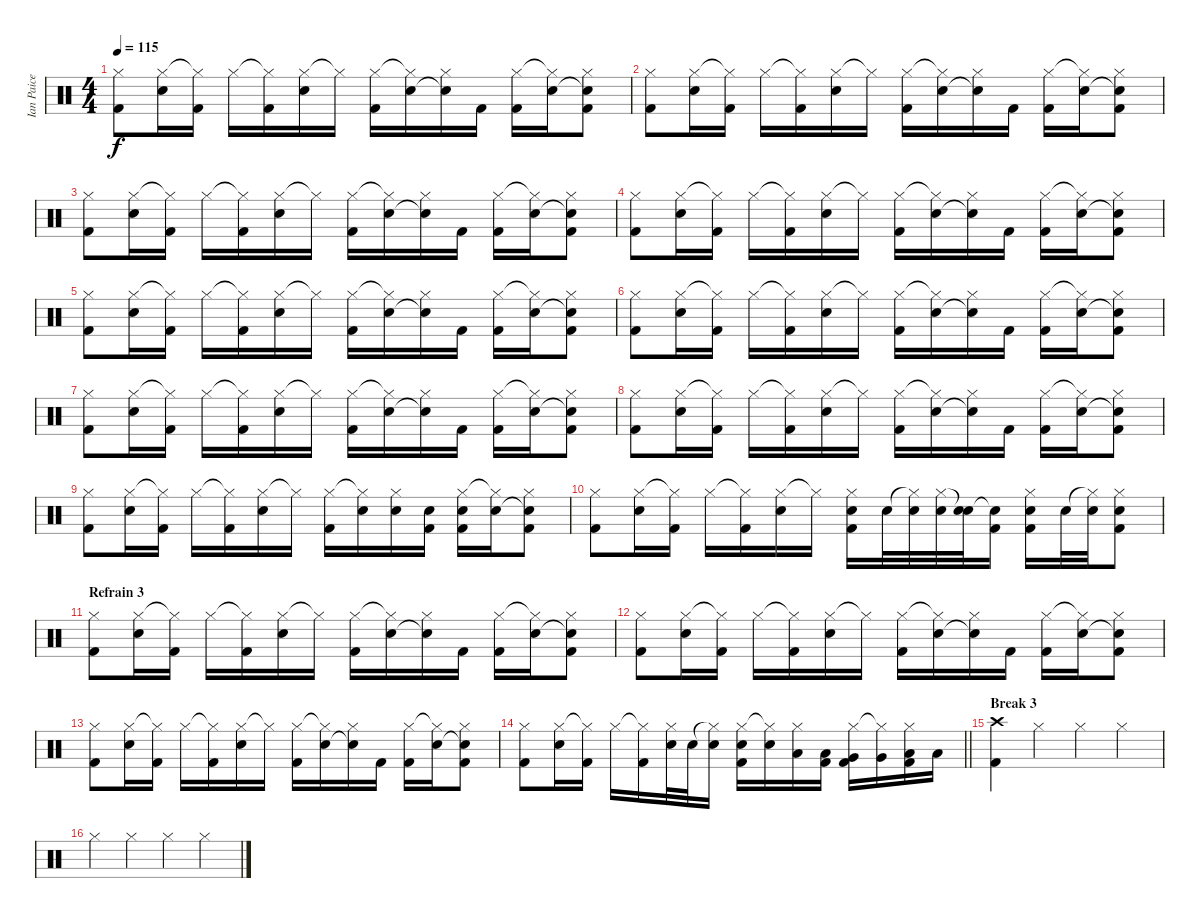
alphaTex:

\track ("Ian Paice" "Ian Paice") {instrument percussion}
\staff {score}
\articulation defaults
\ts (4 4)
\tempo 115
\clef neutral
\ks c
("Hi-Hat (closed)" "Kick (hit) 2").8{dy f} ("Hi-Hat (closed)" "Snare (hit) 2").16 ("Hi-Hat (closed)"{t} "Kick (hit) 2").16 "Hi-Hat (closed)".16 ("Hi-Hat (closed)"{t} "Kick (hit) 2").16 ("Hi-Hat (closed)" "Snare (hit) 2").16 "Hi-Hat (closed)"{t}.16 ("Hi-Hat (closed)" "Kick (hit) 2").16 ("Hi-Hat (closed)"{t} "Snare (hit) 2").16 ("Hi-Hat (closed)" "Snare (hit) 2"{t}).16 "Kick (hit) 2".16 ("Hi-Hat (closed)" "Kick (hit) 2").16 ("Hi-Hat (closed)"{t} "Snare (hit) 2").16 ("Hi-Hat (closed)" "Snare (hit) 2"{t} "Kick (hit) 2").8 |
("Hi-Hat (closed)" "Kick (hit) 2").8 ("Hi-Hat (closed)" "Snare (hit) 2").16 ("Hi-Hat (closed)"{t} "Kick (hit) 2").16 "Hi-Hat (closed)".16 ("Hi-Hat (closed)"{t} "Kick (hit) 2").16 ("Hi-Hat (closed)" "Snare (hit) 2").16 "Hi-Hat (closed)"{t}.16 ("Hi-Hat (closed)" "Kick (hit) 2").16 ("Hi-Hat (closed)"{t} "Snare (hit) 2").16 ("Hi-Hat (closed)" "Snare (hit) 2"{t}).16 "Kick (hit) 2".16 ("Hi-Hat (closed)" "Kick (hit) 2").16 ("Hi-Hat (closed)"{t} "Snare (hit) 2").16 ("Hi-Hat (closed)" "Snare (hit) 2"{t} "Kick (hit) 2").8 |
("Hi-Hat (closed)" "Kick (hit) 2").8 ("Hi-Hat (closed)" "Snare (hit) 2").16 ("Hi-Hat (closed)"{t} "Kick (hit) 2").16 "Hi-Hat (closed)".16 ("Hi-Hat (closed)"{t} "Kick (hit) 2").16 ("Hi-Hat (closed)" "Snare (hit) 2").16 "Hi-Hat (closed)"{t}.16 ("Hi-Hat (closed)" "Kick (hit) 2").16 ("Hi-Hat (closed)"{t} "Snare (hit) 2").16 ("Hi-Hat (closed)" "Snare (hit) 2"{t}).16 "Kick (hit) 2".16 ("Hi-Hat (closed)" "Kick (hit) 2").16 ("Hi-Hat (closed)"{t} "Snare (hit) 2").16 ("Hi-Hat (closed)" "Snare (hit) 2"{t} "Kick (hit) 2").8 |
("Hi-Hat (closed)" "Kick (hit) 2").8 ("Hi-Hat (closed)" "Snare (hit) 2").16 ("Hi-Hat (closed)"{t} "Kick (hit) 2").16 "Hi-Hat (closed)".16 ("Hi-Hat (closed)"{t} "Kick (hit) 2").16 ("Hi-Hat (closed)" "Snare (hit) 2").16 "Hi-Hat (closed)"{t}.16 ("Hi-Hat (closed)" "Kick (hit) 2").16 ("Hi-Hat (closed)"{t} "Snare (hit) 2").16 ("Hi-Hat (closed)" "Snare (hit) 2"{t}).16 "Kick (hit) 2".16 ("Hi-Hat (closed)" "Kick (hit) 2").16 ("Hi-Hat (closed)"{t} "Snare (hit) 2").16 ("Hi-Hat (closed)" "Snare (hit) 2"{t} "Kick (hit) 2").8 |
("Hi-Hat (closed)" "Kick (hit) 2").8 ("Hi-Hat (closed)" "Snare (hit) 2").16 ("Hi-Hat (closed)"{t} "Kick (hit) 2").16 "Hi-Hat (closed)".16 ("Hi-Hat (closed)"{t} "Kick (hit) 2").16 ("Hi-Hat (closed)" "Snare (hit) 2").16 "Hi-Hat (closed)"{t}.16 ("Hi-Hat (closed)" "Kick (hit) 2").16 ("Hi-Hat (closed)"{t} "Snare (hit) 2").16 ("Hi-Hat (closed)" "Snare (hit) 2"{t}).16 "Kick (hit) 2".16 ("Hi-Hat (closed)" "Kick (hit) 2").16 ("Hi-Hat (closed)"{t} "Snare (hit) 2").16 ("Hi-Hat (closed)" "Snare (hit) 2"{t} "Kick (hit) 2").8 |
("Hi-Hat (closed)" "Kick (hit) 2").8 ("Hi-Hat (closed)" "Snare (hit) 2").16 ("Hi-Hat (closed)"{t} "Kick (hit) 2").16 "Hi-Hat (closed)".16 ("Hi-Hat (closed)"{t} "Kick (hit) 2").16 ("Hi-Hat (closed)" "Snare (hit) 2").16 "Hi-Hat (closed)"{t}.16 ("Hi-Hat (closed)" "Kick (hit) 2").16 ("Hi-Hat (closed)"{t} "Snare (hit) 2").16 ("Hi-Hat (closed)" "Snare (hit) 2"{t}).16 "Kick (hit) 2".16 ("Hi-Hat (closed)" "Kick (hit) 2").16 ("Hi-Hat (closed)"{t} "Snare (hit) 2").16 ("Hi-Hat (closed)" "Snare (hit) 2"{t} "Kick (hit) 2").8 |
("Hi-Hat (closed)" "Kick (hit) 2").8 ("Hi-Hat (closed)" "Snare (hit) 2").16 ("Hi-Hat (closed)"{t} "Kick (hit) 2").16 "Hi-Hat (closed)".16 ("Hi-Hat (closed)"{t} "Kick (hit) 2").16 ("Hi-Hat (closed)" "Snare (hit) 2").16 "Hi-Hat (closed)"{t}.16 ("Hi-Hat (closed)" "Kick (hit) 2").16 ("Hi-Hat (closed)"{t} "Snare (hit) 2").16 ("Hi-Hat (closed)" "Snare (hit) 2"{t}).16 "Kick (hit) 2".16 ("Hi-Hat (closed)" "Kick (hit) 2").16 ("Hi-Hat (closed)"{t} "Snare (hit) 2").16 ("Hi-Hat (closed)" "Snare (hit) 2"{t} "Kick (hit) 2").8 |
("Hi-Hat (closed)" "Kick (hit) 2").8 ("Hi-Hat (closed)" "Snare (hit) 2").16 ("Hi-Hat (closed)"{t} "Kick (hit) 2").16 "Hi-Hat (closed)".16 ("Hi-Hat (closed)"{t} "Kick (hit) 2").16 ("Hi-Hat (closed)" "Snare (hit) 2").16 "Hi-Hat (closed)"{t}.16 ("Hi-Hat (closed)" "Kick (hit) 2").16 ("Hi-Hat (closed)"{t} "Snare (hit) 2").16 ("Hi-Hat (closed)" "Snare (hit) 2"{t}).16 "Kick (hit) 2".16 ("Hi-Hat (closed)" "Kick (hit) 2").16 ("Hi-Hat (closed)"{t} "Snare (hit) 2").16 ("Hi-Hat (closed)" "Snare (hit) 2"{t} "Kick (hit) 2").8 |
("Hi-Hat (closed)" "Kick (hit) 2").8 ("Hi-Hat (closed)" "Snare (hit) 2").16 ("Hi-Hat (closed)"{t} "Kick (hit) 2").16 "Hi-Hat (closed)".16 ("Hi-Hat (closed)"{t} "Kick (hit) 2").16 ("Hi-Hat (closed)" "Snare (hit) 2").16 "Hi-Hat (closed)"{t}.16 ("Hi-Hat (closed)" "Kick (hit) 2").16 ("Hi-Hat (closed)"{t} "Snare (hit) 2").16 ("Hi-Hat (closed)" "Snare (hit) 2").16 ("Snare (hit) 2" "Kick (hit) 2").16 ("Hi-Hat (closed)" "Snare (hit) 2" "Kick (hit) 2").16 ("Hi-Hat (closed)"{t} "Snare (hit) 2").16 ("Hi-Hat (closed)" "Snare (hit) 2"{t} "Kick (hit) 2").8 |
("Hi-Hat (closed)" "Kick (hit) 2").8 ("Hi-Hat (closed)" "Snare (hit) 2").16 ("Hi-Hat (closed)"{t} "Kick (hit) 2").16 "Hi-Hat (closed)".16 ("Hi-Hat (closed)"{t} "Kick (hit) 2").16 ("Hi-Hat (closed)" "Snare (hit) 2").16 "Hi-Hat (closed)"{t}.16 ("Hi-Hat (closed)" "Snare (hit) 2" "Kick (hit) 2").16 "Snare (hit) 2".32 ("Hi-Hat (closed)"{t} "Snare (hit) 2").32 ("Hi-Hat (closed)" "Snare (hit) 2").32 ("Snare (hit)"{t} "Snare (hit) 2").32 ("Snare (hit)"{t} "Kick (hit) 2").16 ("Hi-Hat (closed)" "Snare (hit) 2" "Kick (hit) 2").16 "Snare (hit) 2".32 ("Hi-Hat (closed)"{t} "Snare (hit) 2").32 ("Hi-Hat (closed)" "Snare (hit) 2" "Kick (hit) 2").8 |
\section ("" "Refrain 3")
("Hi-Hat (closed)" "Kick (hit) 2").8 ("Hi-Hat (closed)" "Snare (hit) 2").16 ("Hi-Hat (closed)"{t} "Kick (hit) 2").16 "Hi-Hat (closed)".16 ("Hi-Hat (closed)"{t} "Kick (hit) 2").16 ("Hi-Hat (closed)" "Snare (hit) 2").16 "Hi-Hat (closed)"{t}.16 ("Hi-Hat (closed)" "Kick (hit) 2").16 ("Hi-Hat (closed)"{t} "Snare (hit) 2").16 ("Hi-Hat (closed)" "Snare (hit) 2"{t}).16 "Kick (hit) 2".16 ("Hi-Hat (closed)" "Kick (hit) 2").16 ("Hi-Hat (closed)"{t} "Snare (hit) 2").16 ("Hi-Hat (closed)" "Snare (hit) 2"{t} "Kick (hit) 2").8 |
("Hi-Hat (closed)" "Kick (hit) 2").8 ("Hi-Hat (closed)" "Snare (hit) 2").16 ("Hi-Hat (closed)"{t} "Kick (hit) 2").16 "Hi-Hat (closed)".16 ("Hi-Hat (closed)"{t} "Kick (hit) 2").16 ("Hi-Hat (closed)" "Snare (hit) 2").16 "Hi-Hat (closed)"{t}.16 ("Hi-Hat (closed)" "Kick (hit) 2").16 ("Hi-Hat (closed)"{t} "Snare (hit) 2").16 ("Hi-Hat (closed)" "Snare (hit) 2"{t}).16 "Kick (hit) 2".16 ("Hi-Hat (closed)" "Kick (hit) 2").16 ("Hi-Hat (closed)"{t} "Snare (hit) 2").16 ("Hi-Hat (closed)" "Snare (hit) 2"{t} "Kick (hit) 2").8 |
("Hi-Hat (closed)" "Kick (hit) 2").8 ("Hi-Hat (closed)" "Snare (hit) 2").16 ("Hi-Hat (closed)"{t} "Kick (hit) 2").16 "Hi-Hat (closed)".16 ("Hi-Hat (closed)"{t} "Kick (hit) 2").16 ("Hi-Hat (closed)" "Snare (hit) 2").16 "Hi-Hat (closed)"{t}.16 ("Hi-Hat (closed)" "Kick (hit) 2").16 ("Hi-Hat (closed)"{t} "Snare (hit) 2").16 ("Hi-Hat (closed)" "Snare (hit) 2"{t}).16 "Kick (hit) 2".16 ("Hi-Hat (closed)" "Kick (hit) 2").16 ("Hi-Hat (closed)"{t} "Snare (hit) 2").16 ("Hi-Hat (closed)" "Snare (hit) 2"{t} "Kick (hit) 2").8 |
\barLineRight lightlight
("Hi-Hat (closed)" "Kick (hit) 2").8 ("Hi-Hat (closed)" "Snare (hit) 2").16 ("Hi-Hat (closed)"{t} "Kick (hit) 2").16 "Hi-Hat (closed)".16 ("Hi-Hat (closed)"{t} "Kick (hit) 2").16 ("Hi-Hat (closed)" "Snare (hit) 2").32 "Snare (hit) 2".32 ("Hi-Hat (closed)"{t} "Snare (hit) 2").16 ("Hi-Hat (closed)" "Snare (hit) 2" "Kick (hit) 2").16 ("Hi-Hat (closed)"{t} "Snare (hit) 2").16 ("Hi-Hat (closed)" "Low Tom (hit)").16 ("Low Tom (hit)" "Kick (hit) 2").16 ("Hi-Hat (closed)" "Very Low Tom (hit)" "Kick (hit) 2").16 ("Hi-Hat (closed)"{t} "Very Low Tom (hit)").16 ("Hi-Hat (closed)" "Low Floor Tom (hit)" "Kick (hit) 2").16 "Low Floor Tom (hit)".16 |
\section ("" "Break 3")
("Crash high (hit)" "Kick (hit) 2").4 "Hi-Hat (closed)".4 "Hi-Hat (closed)".4 "Hi-Hat (closed)".4 |
"Hi-Hat (closed)".4 "Hi-Hat (closed)".4 "Hi-Hat (closed)".4 "Hi-Hat (closed)".4
